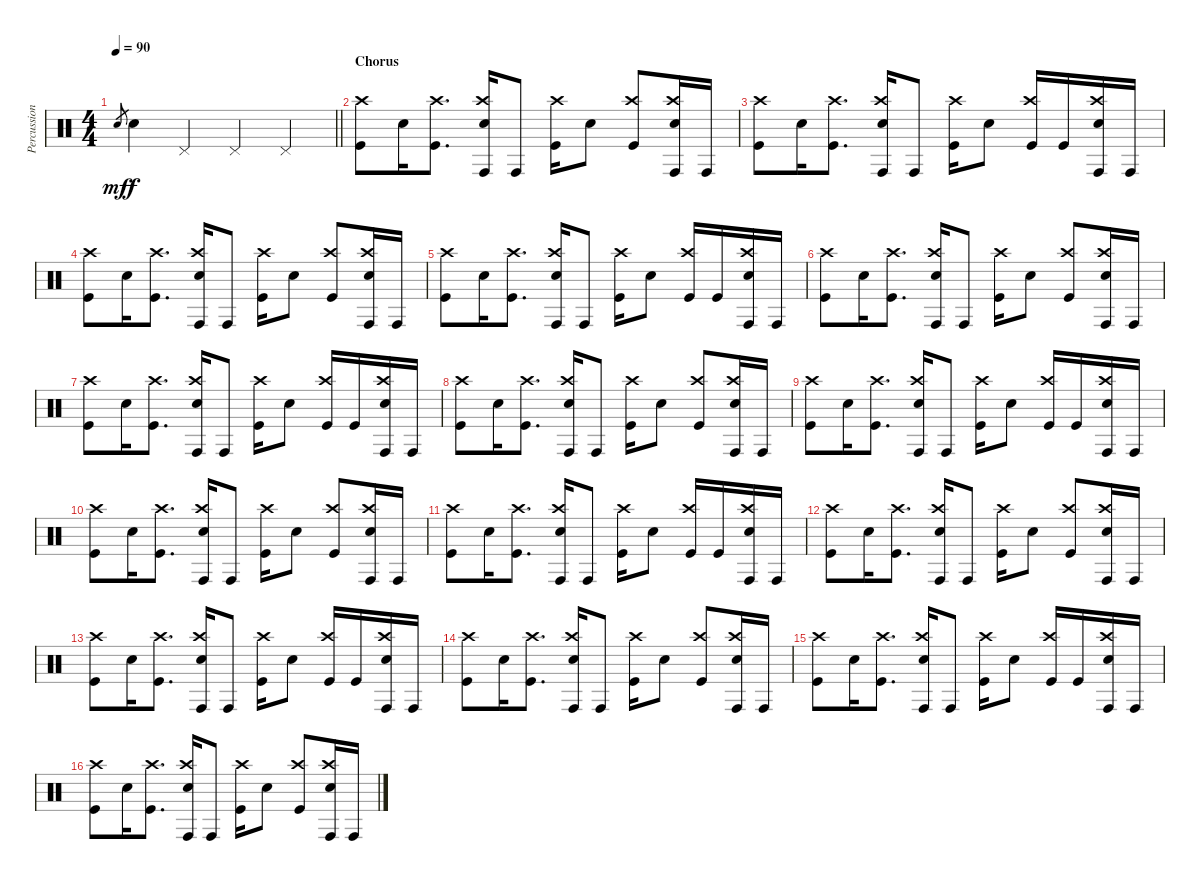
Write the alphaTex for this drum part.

\track ("Percussion" "Percussion") {instrument percussion}
\staff {score}
\articulation defaults
\ts (4 4)
\tempo 90
\clef neutral
\barLineRight lightlight
\ks c "Snare (hit) 2".8{gr dy mf} "Snare (hit) 2".4{dy f} "Pedal Hi-Hat (hit)".4 "Pedal Hi-Hat (hit)".4 "Pedal Hi-Hat (hit)".4
|
\section ("" "Chorus")
("Crash high (hit)" "Kick (hit)").8 "Snare (hit) 2".16 ("Crash high (hit)" "Kick (hit)").8{d} ("Crash high (hit)" "Snare (hit) 2" "Conga high (hit)").16 "Conga high (hit)".8 ("Crash high (hit)" "Kick (hit)").16 "Snare (hit) 2".8 ("Crash high (hit)" "Kick (hit)").8 ("Crash high (hit)" "Snare (hit) 2" "Conga high (hit)").16 "Conga high (hit)".16 |
("Crash high (hit)" "Kick (hit)").8 "Snare (hit) 2".16 ("Crash high (hit)" "Kick (hit)").8{d} ("Crash high (hit)" "Snare (hit) 2" "Conga high (hit)").16 "Conga high (hit)".8 ("Crash high (hit)" "Kick (hit)").16 "Snare (hit) 2".8 ("Crash high (hit)" "Kick (hit)").16 "Kick (hit)".16 ("Crash high (hit)" "Snare (hit) 2" "Conga high (hit)").16 "Conga high (hit)".16 |
("Crash high (hit)" "Kick (hit)").8 "Snare (hit) 2".16 ("Crash high (hit)" "Kick (hit)").8{d} ("Crash high (hit)" "Snare (hit) 2" "Conga high (hit)").16 "Conga high (hit)".8 ("Crash high (hit)" "Kick (hit)").16 "Snare (hit) 2".8 ("Crash high (hit)" "Kick (hit)").8 ("Crash high (hit)" "Snare (hit) 2" "Conga high (hit)").16 "Conga high (hit)".16 |
("Crash high (hit)" "Kick (hit)").8 "Snare (hit) 2".16 ("Crash high (hit)" "Kick (hit)").8{d} ("Crash high (hit)" "Snare (hit) 2" "Conga high (hit)").16 "Conga high (hit)".8 ("Crash high (hit)" "Kick (hit)").16 "Snare (hit) 2".8 ("Crash high (hit)" "Kick (hit)").16 "Kick (hit)".16 ("Crash high (hit)" "Snare (hit) 2" "Conga high (hit)").16 "Conga high (hit)".16 |
("Crash high (hit)" "Kick (hit)").8 "Snare (hit) 2".16 ("Crash high (hit)" "Kick (hit)").8{d} ("Crash high (hit)" "Snare (hit) 2" "Conga high (hit)").16 "Conga high (hit)".8 ("Crash high (hit)" "Kick (hit)").16 "Snare (hit) 2".8 ("Crash high (hit)" "Kick (hit)").8 ("Crash high (hit)" "Snare (hit) 2" "Conga high (hit)").16 "Conga high (hit)".16 |
("Crash high (hit)" "Kick (hit)").8 "Snare (hit) 2".16 ("Crash high (hit)" "Kick (hit)").8{d} ("Crash high (hit)" "Snare (hit) 2" "Conga high (hit)").16 "Conga high (hit)".8 ("Crash high (hit)" "Kick (hit)").16 "Snare (hit) 2".8 ("Crash high (hit)" "Kick (hit)").16 "Kick (hit)".16 ("Crash high (hit)" "Snare (hit) 2" "Conga high (hit)").16 "Conga high (hit)".16 |
("Crash high (hit)" "Kick (hit)").8 "Snare (hit) 2".16 ("Crash high (hit)" "Kick (hit)").8{d} ("Crash high (hit)" "Snare (hit) 2" "Conga high (hit)").16 "Conga high (hit)".8 ("Crash high (hit)" "Kick (hit)").16 "Snare (hit) 2".8 ("Crash high (hit)" "Kick (hit)").8 ("Crash high (hit)" "Snare (hit) 2" "Conga high (hit)").16 "Conga high (hit)".16 |
("Crash high (hit)" "Kick (hit)").8 "Snare (hit) 2".16 ("Crash high (hit)" "Kick (hit)").8{d} ("Crash high (hit)" "Snare (hit) 2" "Conga high (hit)").16 "Conga high (hit)".8 ("Crash high (hit)" "Kick (hit)").16 "Snare (hit) 2".8 ("Crash high (hit)" "Kick (hit)").16 "Kick (hit)".16 ("Crash high (hit)" "Snare (hit) 2" "Conga high (hit)").16 "Conga high (hit)".16 |
("Crash high (hit)" "Kick (hit)").8 "Snare (hit) 2".16 ("Crash high (hit)" "Kick (hit)").8{d} ("Crash high (hit)" "Snare (hit) 2" "Conga high (hit)").16 "Conga high (hit)".8 ("Crash high (hit)" "Kick (hit)").16 "Snare (hit) 2".8 ("Crash high (hit)" "Kick (hit)").8 ("Crash high (hit)" "Snare (hit) 2" "Conga high (hit)").16 "Conga high (hit)".16 |
("Crash high (hit)" "Kick (hit)").8 "Snare (hit) 2".16 ("Crash high (hit)" "Kick (hit)").8{d} ("Crash high (hit)" "Snare (hit) 2" "Conga high (hit)").16 "Conga high (hit)".8 ("Crash high (hit)" "Kick (hit)").16 "Snare (hit) 2".8 ("Crash high (hit)" "Kick (hit)").16 "Kick (hit)".16 ("Crash high (hit)" "Snare (hit) 2" "Conga high (hit)").16 "Conga high (hit)".16 |
("Crash high (hit)" "Kick (hit)").8 "Snare (hit) 2".16 ("Crash high (hit)" "Kick (hit)").8{d} ("Crash high (hit)" "Snare (hit) 2" "Conga high (hit)").16 "Conga high (hit)".8 ("Crash high (hit)" "Kick (hit)").16 "Snare (hit) 2".8 ("Crash high (hit)" "Kick (hit)").8 ("Crash high (hit)" "Snare (hit) 2" "Conga high (hit)").16 "Conga high (hit)".16 |
("Crash high (hit)" "Kick (hit)").8 "Snare (hit) 2".16 ("Crash high (hit)" "Kick (hit)").8{d} ("Crash high (hit)" "Snare (hit) 2" "Conga high (hit)").16 "Conga high (hit)".8 ("Crash high (hit)" "Kick (hit)").16 "Snare (hit) 2".8 ("Crash high (hit)" "Kick (hit)").16 "Kick (hit)".16 ("Crash high (hit)" "Snare (hit) 2" "Conga high (hit)").16 "Conga high (hit)".16 |
("Crash high (hit)" "Kick (hit)").8 "Snare (hit) 2".16 ("Crash high (hit)" "Kick (hit)").8{d} ("Crash high (hit)" "Snare (hit) 2" "Conga high (hit)").16 "Conga high (hit)".8 ("Crash high (hit)" "Kick (hit)").16 "Snare (hit) 2".8 ("Crash high (hit)" "Kick (hit)").8 ("Crash high (hit)" "Snare (hit) 2" "Conga high (hit)").16 "Conga high (hit)".16 |
("Crash high (hit)" "Kick (hit)").8 "Snare (hit) 2".16 ("Crash high (hit)" "Kick (hit)").8{d} ("Crash high (hit)" "Snare (hit) 2" "Conga high (hit)").16 "Conga high (hit)".8 ("Crash high (hit)" "Kick (hit)").16 "Snare (hit) 2".8 ("Crash high (hit)" "Kick (hit)").16 "Kick (hit)".16 ("Crash high (hit)" "Snare (hit) 2" "Conga high (hit)").16 "Conga high (hit)".16 |
("Crash high (hit)" "Kick (hit)").8 "Snare (hit) 2".16 ("Crash high (hit)" "Kick (hit)").8{d} ("Crash high (hit)" "Snare (hit) 2" "Conga high (hit)").16 "Conga high (hit)".8 ("Crash high (hit)" "Kick (hit)").16 "Snare (hit) 2".8 ("Crash high (hit)" "Kick (hit)").8 ("Crash high (hit)" "Snare (hit) 2" "Conga high (hit)").16 "Conga high (hit)".16
